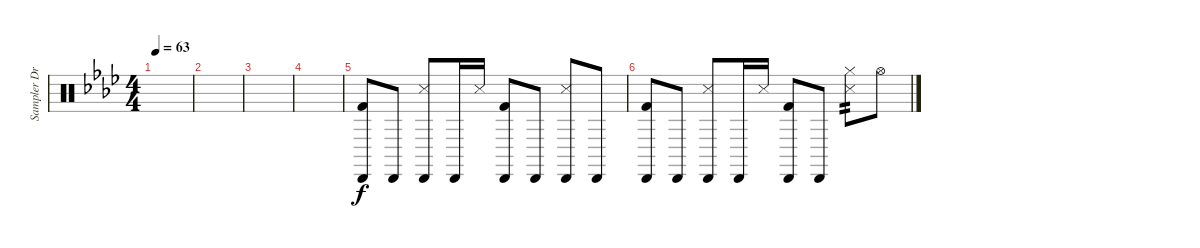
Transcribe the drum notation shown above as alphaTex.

\track ("Sampler Drums" "Sampler Dr") {instrument percussion}
\staff {score}
\articulation defaults
\ts (4 4)
\tempo 63
\clef neutral
\ks ab
|
|
|
|
("Cabasa (hit)" "Kick (hit) 2").8 "Cabasa (hit)".8 ("Cabasa (hit)" "Snare (side stick) 3").8 "Cabasa (hit)".16 "Snare (side stick) 3".16 ("Cabasa (hit)" "Kick (hit) 2").8 "Cabasa (hit)".8 ("Cabasa (hit)" "Snare (side stick) 3").8 "Cabasa (hit)".8 |
("Cabasa (hit)" "Kick (hit) 2").8 "Cabasa (hit)".8 ("Cabasa (hit)" "Snare (side stick) 3").8 "Cabasa (hit)".16 "Snare (side stick) 3".16 ("Cabasa (hit)" "Kick (hit) 2").8 "Cabasa (hit)".8 ("Hi-Hat (closed)" "Snare (side stick) 3").8{tp 2} "Hi-Hat (open)".8
